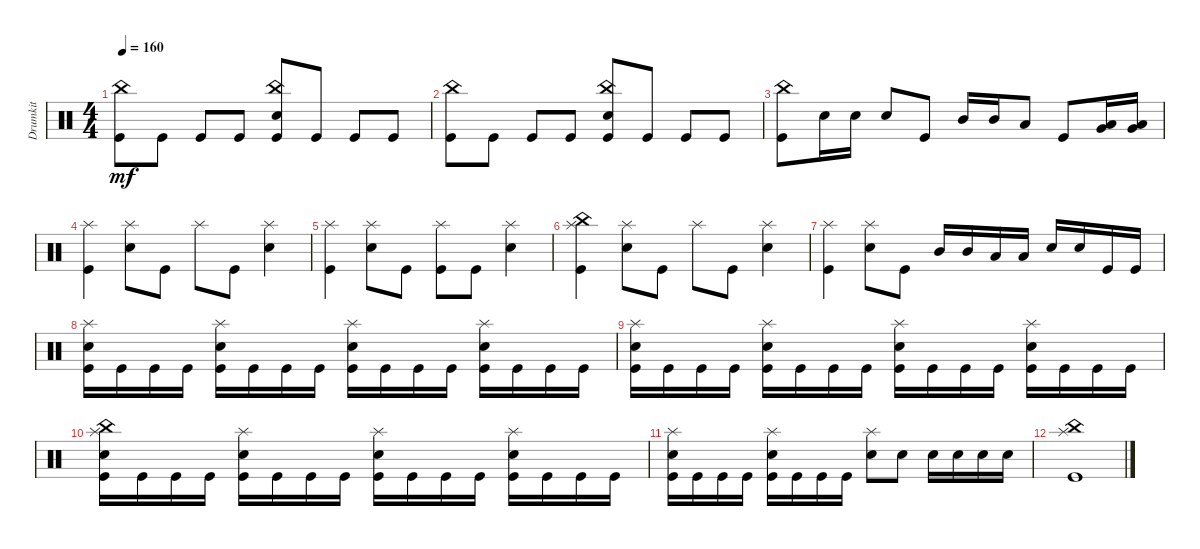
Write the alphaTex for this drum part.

\track ("Drumkit" "Drumkit") {instrument percussion}
\staff {score}
\articulation defaults
\ts (4 4)
\tempo 160
\clef neutral
\ks c
("Kick (hit)" "China (hit)").8{dy mf} "Kick (hit)".8 "Kick (hit)".8 "Kick (hit)".8 ("Kick (hit)" "China (hit)" "Snare (hit) 2").8 "Kick (hit)".8 "Kick (hit)".8 "Kick (hit)".8 |
("Kick (hit)" "China (hit)").8 "Kick (hit)".8 "Kick (hit)".8 "Kick (hit)".8 ("Kick (hit)" "China (hit)" "Snare (hit) 2").8 "Kick (hit)".8 "Kick (hit)".8 "Kick (hit)".8 |
("Kick (hit)" "China (hit)").8 "Snare (hit) 2".16 "Snare (hit) 2".16 "Snare (hit) 2".8 "Kick (hit)".8 "Mid Tom (hit)".16 "Mid Tom (hit)".16 "Low Tom (hit)".8 "Kick (hit)".8 ("Low Floor Tom (hit)" "Very Low Tom (hit)").16 ("Low Floor Tom (hit)" "Very Low Tom (hit)").16 |
("Kick (hit)" "Splash (hit)").4 ("Snare (hit) 2" "Splash (hit)").8 "Kick (hit)".8 "Splash (hit)".8 "Kick (hit)".8 ("Snare (hit) 2" "Splash (hit)").4 |
("Kick (hit)" "Splash (hit)").4 ("Snare (hit) 2" "Splash (hit)").8 "Kick (hit)".8 ("Kick (hit)" "Splash (hit)").8 "Kick (hit)".8 ("Snare (hit) 2" "Splash (hit)").4 |
("Kick (hit)" "Splash (hit)" "China (hit)").4 ("Snare (hit) 2" "Splash (hit)").8 "Kick (hit)".8 "Splash (hit)".8 "Kick (hit)".8 ("Snare (hit) 2" "Splash (hit)").4 |
("Kick (hit)" "Splash (hit)").4 ("Snare (hit) 2" "Splash (hit)").8 "Kick (hit)".8 "Mid Tom (hit)".16 "Mid Tom (hit)".16 "Low Tom (hit)".16 "Low Tom (hit)".16 "Snare (hit) 2".16 "Snare (hit) 2".16 "Kick (hit)".16 "Kick (hit)".16 |
("Kick (hit)" "Snare (hit) 2" "Splash (hit)").16 "Kick (hit)".16 "Kick (hit)".16 "Kick (hit)".16 ("Kick (hit)" "Snare (hit) 2" "Splash (hit)").16 "Kick (hit)".16 "Kick (hit)".16 "Kick (hit)".16 ("Kick (hit)" "Snare (hit) 2" "Splash (hit)").16 "Kick (hit)".16 "Kick (hit)".16 "Kick (hit)".16 ("Kick (hit)" "Snare (hit) 2" "Splash (hit)").16 "Kick (hit)".16 "Kick (hit)".16 "Kick (hit)".16 |
("Kick (hit)" "Snare (hit) 2" "Splash (hit)").16 "Kick (hit)".16 "Kick (hit)".16 "Kick (hit)".16 ("Kick (hit)" "Snare (hit) 2" "Splash (hit)").16 "Kick (hit)".16 "Kick (hit)".16 "Kick (hit)".16 ("Kick (hit)" "Snare (hit) 2" "Splash (hit)").16 "Kick (hit)".16 "Kick (hit)".16 "Kick (hit)".16 ("Kick (hit)" "Snare (hit) 2" "Splash (hit)").16 "Kick (hit)".16 "Kick (hit)".16 "Kick (hit)".16 |
("Kick (hit)" "Snare (hit) 2" "Splash (hit)" "China (hit)").16 "Kick (hit)".16 "Kick (hit)".16 "Kick (hit)".16 ("Kick (hit)" "Snare (hit) 2" "Splash (hit)").16 "Kick (hit)".16 "Kick (hit)".16 "Kick (hit)".16 ("Kick (hit)" "Snare (hit) 2" "Splash (hit)").16 "Kick (hit)".16 "Kick (hit)".16 "Kick (hit)".16 ("Kick (hit)" "Snare (hit) 2" "Splash (hit)").16 "Kick (hit)".16 "Kick (hit)".16 "Kick (hit)".16 |
("Kick (hit)" "Snare (hit) 2" "Splash (hit)").16 "Kick (hit)".16 "Kick (hit)".16 "Kick (hit)".16 ("Kick (hit)" "Snare (hit) 2" "Splash (hit)").16 "Kick (hit)".16 "Kick (hit)".16 "Kick (hit)".16 ("Snare (hit) 2" "Splash (hit)").8 "Snare (hit) 2".8 "Snare (hit) 2".16 "Snare (hit) 2".16 "Snare (hit) 2".16 "Snare (hit) 2".16 |
("China (hit)" "Splash (hit)" "Kick (hit)").1
